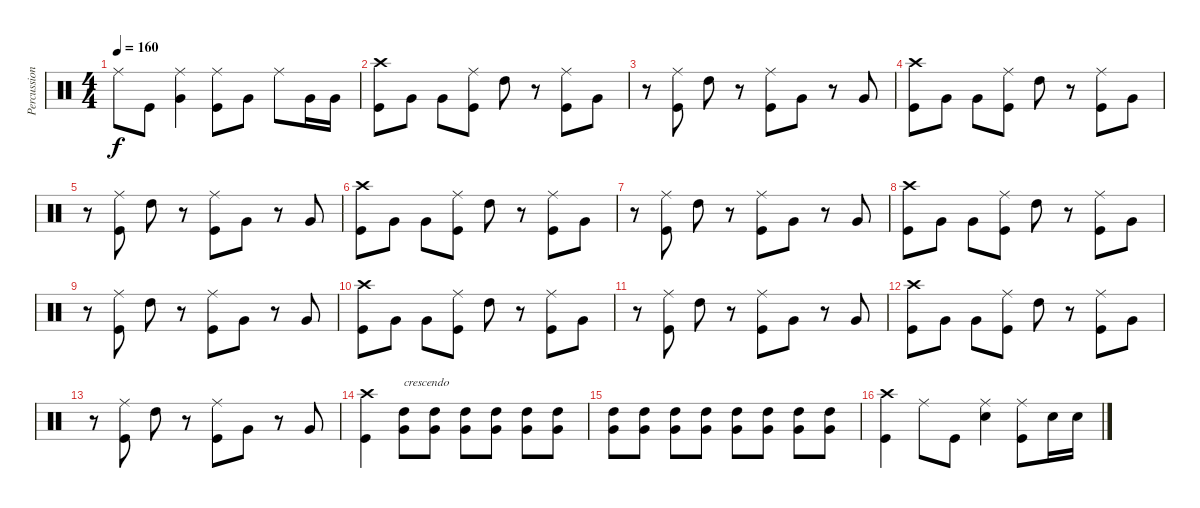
\track ("Percussion" "Percussion") {instrument percussion}
\staff {score}
\articulation defaults
\ts (4 4)
\tempo 160
\clef neutral
\ks c "Ride (middle)".8{dy f} "Kick (hit)".8
("Ride (middle)" "Very Low Tom (hit)").4 ("Ride (middle)" "Kick (hit)").8 "Very Low Tom (hit)".8 "Ride (middle)".8 "Very Low Tom (hit)".16 "Very Low Tom (hit)".16 |
("Crash high (hit)" "Kick (hit)").8 "Very Low Tom (hit)".8 "Very Low Tom (hit)".8 ("Ride (middle)" "Kick (hit)").8 "High Tom (hit)".8 r.8 ("Ride (middle)" "Kick (hit)").8 "Very Low Tom (hit)".8 |
r.8 ("Ride (middle)" "Kick (hit)").8 "High Tom (hit)".8 r.8 ("Ride (middle)" "Kick (hit)").8 "Very Low Tom (hit)".8 r.8 "Very Low Tom (hit)".8 |
("Crash high (hit)" "Kick (hit)").8 "Very Low Tom (hit)".8 "Very Low Tom (hit)".8 ("Ride (middle)" "Kick (hit)").8 "High Tom (hit)".8 r.8 ("Ride (middle)" "Kick (hit)").8 "Very Low Tom (hit)".8 |
r.8 ("Ride (middle)" "Kick (hit)").8 "High Tom (hit)".8 r.8 ("Ride (middle)" "Kick (hit)").8 "Very Low Tom (hit)".8 r.8 "Very Low Tom (hit)".8 |
("Crash high (hit)" "Kick (hit)").8 "Very Low Tom (hit)".8 "Very Low Tom (hit)".8 ("Ride (middle)" "Kick (hit)").8 "High Tom (hit)".8 r.8 ("Ride (middle)" "Kick (hit)").8 "Very Low Tom (hit)".8 |
r.8 ("Ride (middle)" "Kick (hit)").8 "High Tom (hit)".8 r.8 ("Ride (middle)" "Kick (hit)").8 "Very Low Tom (hit)".8 r.8 "Very Low Tom (hit)".8 |
("Crash high (hit)" "Kick (hit)").8 "Very Low Tom (hit)".8 "Very Low Tom (hit)".8 ("Ride (middle)" "Kick (hit)").8 "High Tom (hit)".8 r.8 ("Ride (middle)" "Kick (hit)").8 "Very Low Tom (hit)".8 |
r.8 ("Ride (middle)" "Kick (hit)").8 "High Tom (hit)".8 r.8 ("Ride (middle)" "Kick (hit)").8 "Very Low Tom (hit)".8 r.8 "Very Low Tom (hit)".8 |
("Crash high (hit)" "Kick (hit)").8 "Very Low Tom (hit)".8 "Very Low Tom (hit)".8 ("Ride (middle)" "Kick (hit)").8 "High Tom (hit)".8 r.8 ("Ride (middle)" "Kick (hit)").8 "Very Low Tom (hit)".8 |
r.8 ("Ride (middle)" "Kick (hit)").8 "High Tom (hit)".8 r.8 ("Ride (middle)" "Kick (hit)").8 "Very Low Tom (hit)".8 r.8 "Very Low Tom (hit)".8 |
("Crash high (hit)" "Kick (hit)").8 "Very Low Tom (hit)".8 "Very Low Tom (hit)".8 ("Ride (middle)" "Kick (hit)").8 "High Tom (hit)".8 r.8 ("Ride (middle)" "Kick (hit)").8 "Very Low Tom (hit)".8 |
r.8 ("Ride (middle)" "Kick (hit)").8 "High Tom (hit)".8 r.8 ("Ride (middle)" "Kick (hit)").8 "Very Low Tom (hit)".8 r.8 "Very Low Tom (hit)".8 |
("Crash high (hit)" "Kick (hit)").4 ("High Tom (hit)" "Very Low Tom (hit)").8{txt "crescendo"} ("High Tom (hit)" "Very Low Tom (hit)").8 ("High Tom (hit)" "Very Low Tom (hit)").8 ("High Tom (hit)" "Very Low Tom (hit)").8 ("High Tom (hit)" "Very Low Tom (hit)").8 ("High Tom (hit)" "Very Low Tom (hit)").8 |
("High Tom (hit)" "Very Low Tom (hit)").8 ("High Tom (hit)" "Very Low Tom (hit)").8 ("High Tom (hit)" "Very Low Tom (hit)").8 ("High Tom (hit)" "Very Low Tom (hit)").8 ("High Tom (hit)" "Very Low Tom (hit)").8 ("High Tom (hit)" "Very Low Tom (hit)").8 ("High Tom (hit)" "Very Low Tom (hit)").8 ("High Tom (hit)" "Very Low Tom (hit)").8 |
("Crash high (hit)" "Kick (hit)").4 "Ride (middle)".8 "Kick (hit)".8 ("Ride (middle)" "Snare (hit) 2").4 ("Ride (middle)" "Kick (hit)").8 "Snare (hit) 2".16 "Snare (hit) 2".16
